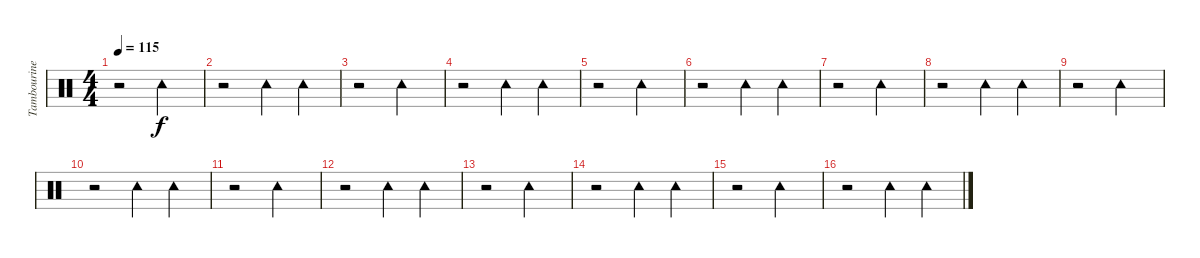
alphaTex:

\track ("Tambourine" "Tambourine") {instrument percussion}
\staff {score}
\articulation defaults
\ts (4 4)
\tempo 115
\clef neutral
\ks c
r.2{dy f} "Tambourine (hit)".2 |
r.2 "Tambourine (hit)".4 "Tambourine (hit)".4 |
r.2 "Tambourine (hit)".2 |
r.2 "Tambourine (hit)".4 "Tambourine (hit)".4 |
r.2 "Tambourine (hit)".2 |
r.2 "Tambourine (hit)".4 "Tambourine (hit)".4 |
r.2 "Tambourine (hit)".2 |
r.2 "Tambourine (hit)".4 "Tambourine (hit)".4 |
r.2 "Tambourine (hit)".2 |
r.2 "Tambourine (hit)".4 "Tambourine (hit)".4 |
r.2 "Tambourine (hit)".2 |
r.2 "Tambourine (hit)".4 "Tambourine (hit)".4 |
r.2 "Tambourine (hit)".2 |
r.2 "Tambourine (hit)".4 "Tambourine (hit)".4 |
r.2 "Tambourine (hit)".2 |
r.2 "Tambourine (hit)".4 "Tambourine (hit)".4
